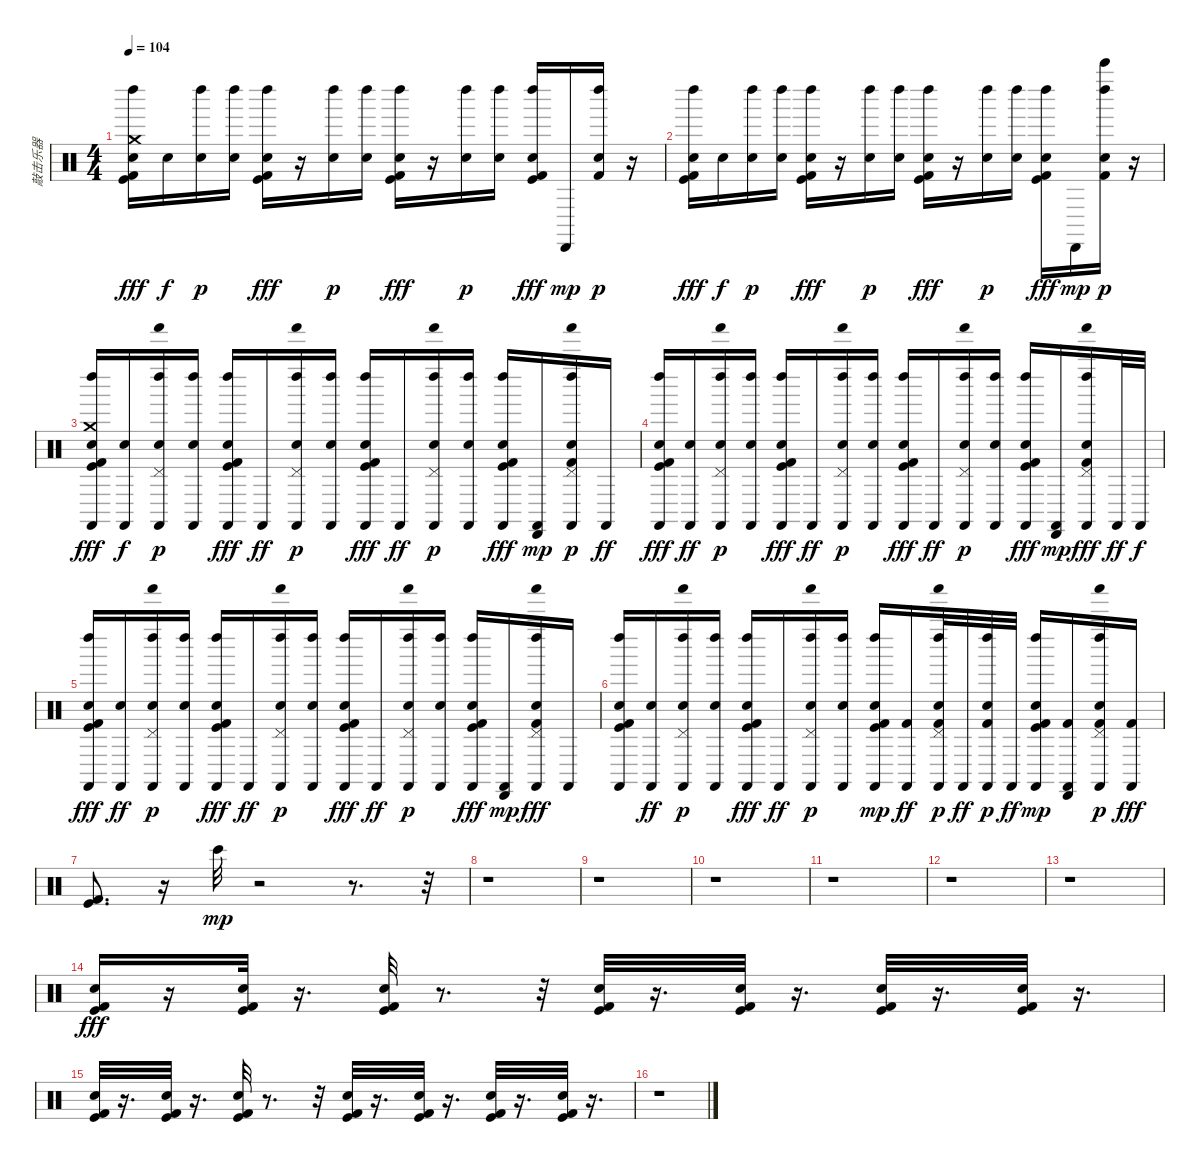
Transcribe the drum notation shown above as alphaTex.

\track ("敲击乐器" "敲击乐器") {instrument percussion}
\staff {score}
\articulation defaults
\ts (4 4)
\tempo 104
\clef neutral
\ks c
("Snare (hit) 2" "Left Maraca (hit)" "Crash medium (hit)" "Kick (hit)" "Kick (hit) 2").16{dy fff} "Snare (hit) 2".16{dy f} ("Snare (hit) 2" "Left Maraca (hit)").16{dy p} ("Snare (hit) 2" "Left Maraca (hit)").16 ("Snare (hit) 2" "Left Maraca (hit)" "Kick (hit)" "Kick (hit) 2").16{dy fff} r.16 ("Snare (hit) 2" "Left Maraca (hit)").16{dy p} ("Snare (hit) 2" "Left Maraca (hit)").16 ("Snare (hit) 2" "Left Maraca (hit)" "Kick (hit)" "Kick (hit) 2").16{dy fff} r.16 ("Snare (hit) 2" "Left Maraca (hit)").16{dy p} ("Snare (hit) 2" "Left Maraca (hit)").16 ("Snare (hit) 2" "Left Maraca (hit)" "Kick (hit)" "Kick (hit) 2").16{dy fff} "Cabasa (hit)".16{dy mp} ("Snare (hit) 2" "Kick (hit) 2" "Left Maraca (hit)").16{dy p} r.16 |
("Snare (hit) 2" "Left Maraca (hit)" "Kick (hit) 2" "Kick (hit)").16{dy fff} "Snare (hit) 2".16{dy f} ("Snare (hit) 2" "Left Maraca (hit)").16{dy p} ("Snare (hit) 2" "Left Maraca (hit)").16 ("Snare (hit) 2" "Left Maraca (hit)" "Kick (hit) 2" "Kick (hit)").16{dy fff} r.16 ("Snare (hit) 2" "Left Maraca (hit)").16{dy p} ("Snare (hit) 2" "Left Maraca (hit)").16 ("Snare (hit) 2" "Left Maraca (hit)" "Kick (hit) 2" "Kick (hit)").16{dy fff} r.16 ("Snare (hit) 2" "Left Maraca (hit)").16{dy p} ("Snare (hit) 2" "Left Maraca (hit)").16 ("Snare (hit) 2" "Left Maraca (hit)" "Kick (hit) 2" "Kick (hit)").16{dy fff} "Cabasa (hit)".16{dy mp} ("Bell Tree (hit)" "Snare (hit) 2" "Kick (hit) 2" "Left Maraca (hit)").16{dy p} r.16 |
("Crash medium (hit)" "Castanets (hit)" "Snare (hit) 2" "Left Maraca (hit)" "Kick (hit) 2" "Kick (hit)").16{dy fff} ("Castanets (hit)" "Snare (hit) 2").16{dy f} ("Shaker (hit)" "Pedal Hi-Hat (hit)" "Castanets (hit)" "Snare (hit) 2" "Left Maraca (hit)").16{dy p} ("Castanets (hit)" "Snare (hit) 2" "Left Maraca (hit)").16 ("Castanets (hit)" "Snare (hit) 2" "Left Maraca (hit)" "Kick (hit) 2" "Kick (hit)").16{dy fff} "Castanets (hit)".16{dy ff} ("Shaker (hit)" "Pedal Hi-Hat (hit)" "Castanets (hit)" "Snare (hit) 2" "Left Maraca (hit)").16{dy p} ("Castanets (hit)" "Snare (hit) 2" "Left Maraca (hit)").16 ("Castanets (hit)" "Snare (hit) 2" "Left Maraca (hit)" "Kick (hit) 2" "Kick (hit)").16{dy fff} "Castanets (hit)".16{dy ff} ("Pedal Hi-Hat (hit)" "Shaker (hit)" "Castanets (hit)" "Snare (hit) 2" "Left Maraca (hit)").16{dy p} ("Castanets (hit)" "Snare (hit) 2" "Left Maraca (hit)").16 ("Castanets (hit)" "Snare (hit) 2" "Left Maraca (hit)" "Kick (hit) 2" "Kick (hit)").16{dy fff} ("Castanets (hit)" "Cabasa (hit)").16{dy mp} ("Pedal Hi-Hat (hit)" "Shaker (hit)" "Castanets (hit)" "Snare (hit) 2" "Kick (hit) 2" "Left Maraca (hit)").16{dy p} "Castanets (hit)".16{dy ff} |
("Castanets (hit)" "Snare (hit) 2" "Left Maraca (hit)" "Kick (hit)" "Kick (hit) 2").16{dy fff} ("Castanets (hit)" "Snare (hit) 2").16{dy ff} ("Pedal Hi-Hat (hit)" "Shaker (hit)" "Castanets (hit)" "Snare (hit) 2" "Left Maraca (hit)").16{dy p} ("Castanets (hit)" "Snare (hit) 2" "Left Maraca (hit)").16 ("Castanets (hit)" "Snare (hit) 2" "Left Maraca (hit)" "Kick (hit)" "Kick (hit) 2").16{dy fff} "Castanets (hit)".16{dy ff} ("Pedal Hi-Hat (hit)" "Shaker (hit)" "Castanets (hit)" "Snare (hit) 2" "Left Maraca (hit)").16{dy p} ("Castanets (hit)" "Snare (hit) 2" "Left Maraca (hit)").16 ("Castanets (hit)" "Snare (hit) 2" "Left Maraca (hit)" "Kick (hit)" "Kick (hit) 2").16{dy fff} "Castanets (hit)".16{dy ff} ("Shaker (hit)" "Pedal Hi-Hat (hit)" "Castanets (hit)" "Snare (hit) 2" "Left Maraca (hit)").16{dy p} ("Castanets (hit)" "Snare (hit) 2" "Left Maraca (hit)").16 ("Castanets (hit)" "Snare (hit) 2" "Left Maraca (hit)" "Kick (hit)" "Kick (hit) 2").16{dy fff} ("Castanets (hit)" "Cabasa (hit)").16{dy mp} ("Shaker (hit)" "Pedal Hi-Hat (hit)" "Castanets (hit)" "Snare (hit) 2" "Left Maraca (hit)" "Kick (hit) 2").16{dy fff} "Castanets (hit)".32{dy ff} "Castanets (hit)".32{dy f} |
("Castanets (hit)" "Snare (hit) 2" "Left Maraca (hit)" "Kick (hit) 2" "Kick (hit)").16{dy fff} ("Castanets (hit)" "Snare (hit) 2").16{dy ff} ("Shaker (hit)" "Pedal Hi-Hat (hit)" "Castanets (hit)" "Snare (hit) 2" "Left Maraca (hit)").16{dy p} ("Castanets (hit)" "Snare (hit) 2" "Left Maraca (hit)").16 ("Castanets (hit)" "Snare (hit) 2" "Left Maraca (hit)" "Kick (hit) 2" "Kick (hit)").16{dy fff} "Castanets (hit)".16{dy ff} ("Shaker (hit)" "Pedal Hi-Hat (hit)" "Castanets (hit)" "Snare (hit) 2" "Left Maraca (hit)").16{dy p} ("Castanets (hit)" "Snare (hit) 2" "Left Maraca (hit)").16 ("Castanets (hit)" "Snare (hit) 2" "Left Maraca (hit)" "Kick (hit) 2" "Kick (hit)").16{dy fff} "Castanets (hit)".16{dy ff} ("Pedal Hi-Hat (hit)" "Shaker (hit)" "Castanets (hit)" "Snare (hit) 2" "Left Maraca (hit)").16{dy p} ("Castanets (hit)" "Snare (hit) 2" "Left Maraca (hit)").16 ("Castanets (hit)" "Snare (hit) 2" "Left Maraca (hit)" "Kick (hit) 2" "Kick (hit)").16{dy fff} ("Castanets (hit)" "Cabasa (hit)").16{dy mp} ("Pedal Hi-Hat (hit)" "Shaker (hit)" "Castanets (hit)" "Snare (hit) 2" "Left Maraca (hit)" "Kick (hit) 2").16{dy fff} "Castanets (hit)".16 |
("Castanets (hit)" "Snare (hit) 2" "Left Maraca (hit)" "Kick (hit)" "Kick (hit) 2").16 ("Castanets (hit)" "Snare (hit) 2").16{dy ff} ("Pedal Hi-Hat (hit)" "Shaker (hit)" "Castanets (hit)" "Snare (hit) 2" "Left Maraca (hit)").16{dy p} ("Castanets (hit)" "Snare (hit) 2" "Left Maraca (hit)").16 ("Castanets (hit)" "Snare (hit) 2" "Left Maraca (hit)" "Kick (hit)" "Kick (hit) 2").16{dy fff} "Castanets (hit)".16{dy ff} ("Pedal Hi-Hat (hit)" "Shaker (hit)" "Castanets (hit)" "Snare (hit) 2" "Left Maraca (hit)").16{dy p} ("Castanets (hit)" "Snare (hit) 2" "Left Maraca (hit)").16 ("Kick (hit)" "Kick (hit) 2" "Castanets (hit)" "Snare (hit) 2" "Left Maraca (hit)").16{dy mp} ("Kick (hit) 2" "Castanets (hit)").16{dy ff} ("Kick (hit) 2" "Shaker (hit)" "Pedal Hi-Hat (hit)" "Castanets (hit)" "Snare (hit) 2" "Left Maraca (hit)").32{dy p} "Castanets (hit)".32{dy ff} ("Kick (hit) 2" "Castanets (hit)" "Snare (hit) 2" "Left Maraca (hit)").32{dy p} "Castanets (hit)".32{dy ff} ("Kick (hit)" "Kick (hit) 2" "Castanets (hit)" "Snare (hit) 2" "Left Maraca (hit)").16{dy mp} ("Kick (hit) 2" "Castanets (hit)" "Cabasa (hit)").16 ("Kick (hit) 2" "Shaker (hit)" "Pedal Hi-Hat (hit)" "Castanets (hit)" "Snare (hit) 2" "Left Maraca (hit)").16{dy p} ("Kick (hit) 2" "Castanets (hit)").16{dy fff} |
("Kick (hit) 2" "Kick (hit)").8{d} r.16 "Bongo High (hit)".32{dy mp} r.2 r.8{d} r.32 |
r.1 |
r.1 |
r.1 |
r.1 |
r.1 |
r.1 |
("Kick (hit)" "Kick (hit) 2" "Snare (hit) 2").16{dy fff} r.16 ("Kick (hit)" "Kick (hit) 2" "Snare (hit) 2").32 r.16{d} ("Kick (hit)" "Kick (hit) 2" "Snare (hit) 2").32 r.8{d} r.32 ("Kick (hit)" "Kick (hit) 2" "Snare (hit) 2").32 r.16{d} ("Kick (hit)" "Kick (hit) 2" "Snare (hit) 2").32 r.16{d} ("Kick (hit)" "Kick (hit) 2" "Snare (hit) 2").32 r.16{d} ("Kick (hit)" "Kick (hit) 2" "Snare (hit) 2").32 r.16{d} |
("Kick (hit)" "Kick (hit) 2" "Snare (hit) 2").32 r.16{d} ("Kick (hit)" "Kick (hit) 2" "Snare (hit) 2").32 r.16{d} ("Kick (hit)" "Kick (hit) 2" "Snare (hit) 2").32 r.8{d} r.32 ("Kick (hit)" "Kick (hit) 2" "Snare (hit) 2").32 r.16{d} ("Kick (hit)" "Kick (hit) 2" "Snare (hit) 2").32 r.16{d} ("Kick (hit)" "Kick (hit) 2" "Snare (hit) 2").32 r.16{d} ("Kick (hit)" "Kick (hit) 2" "Snare (hit) 2").32 r.16{d} |
r.1
